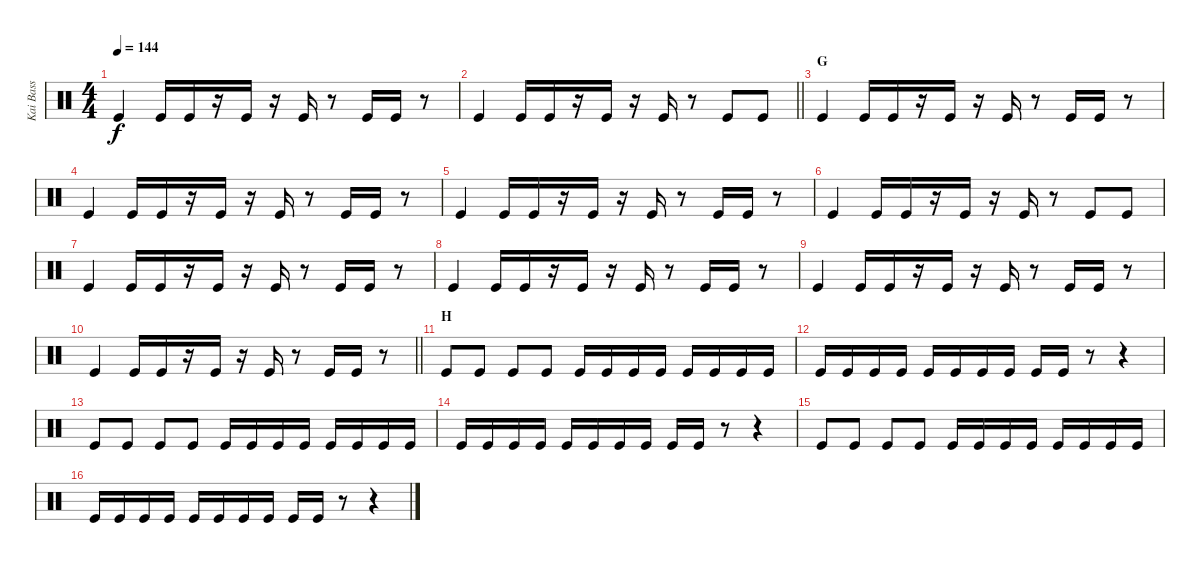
\track ("Kai Bass" "Kai Bass") {instrument percussion}
\staff {score}
\articulation defaults
\ts (4 4)
\tempo 144
\clef neutral
\ks c "Kick (hit)".4{dy f} "Kick (hit)".16 "Kick (hit)".16
r.16 "Kick (hit)".16 r.16 "Kick (hit)".16 r.8 "Kick (hit)".16 "Kick (hit)".16 r.8 |
\barLineRight lightlight "Kick (hit)".4 "Kick (hit)".16 "Kick (hit)".16
r.16 "Kick (hit)".16 r.16 "Kick (hit)".16 r.8 "Kick (hit)".8 "Kick (hit)".8 |
\section ("" "G")
"Kick (hit)".4 "Kick (hit)".16 "Kick (hit)".16 r.16 "Kick (hit)".16 r.16 "Kick (hit)".16 r.8 "Kick (hit)".16 "Kick (hit)".16 r.8 |
"Kick (hit)".4 "Kick (hit)".16 "Kick (hit)".16 r.16 "Kick (hit)".16 r.16 "Kick (hit)".16 r.8 "Kick (hit)".16 "Kick (hit)".16 r.8 |
"Kick (hit)".4 "Kick (hit)".16 "Kick (hit)".16 r.16 "Kick (hit)".16 r.16 "Kick (hit)".16 r.8 "Kick (hit)".16 "Kick (hit)".16 r.8 |
"Kick (hit)".4 "Kick (hit)".16 "Kick (hit)".16 r.16 "Kick (hit)".16 r.16 "Kick (hit)".16 r.8 "Kick (hit)".8 "Kick (hit)".8 |
"Kick (hit)".4 "Kick (hit)".16 "Kick (hit)".16 r.16 "Kick (hit)".16 r.16 "Kick (hit)".16 r.8 "Kick (hit)".16 "Kick (hit)".16 r.8 |
"Kick (hit)".4 "Kick (hit)".16 "Kick (hit)".16 r.16 "Kick (hit)".16 r.16 "Kick (hit)".16 r.8 "Kick (hit)".16 "Kick (hit)".16 r.8 |
"Kick (hit)".4 "Kick (hit)".16 "Kick (hit)".16 r.16 "Kick (hit)".16 r.16 "Kick (hit)".16 r.8 "Kick (hit)".16 "Kick (hit)".16 r.8 |
\barLineRight lightlight "Kick (hit)".4 "Kick (hit)".16 "Kick (hit)".16
r.16 "Kick (hit)".16 r.16 "Kick (hit)".16 r.8 "Kick (hit)".16 "Kick (hit)".16 r.8 |
\section ("" "H")
"Kick (hit)".8 "Kick (hit)".8 "Kick (hit)".8 "Kick (hit)".8 "Kick (hit)".16 "Kick (hit)".16 "Kick (hit)".16 "Kick (hit)".16 "Kick (hit)".16 "Kick (hit)".16 "Kick (hit)".16 "Kick (hit)".16 |
"Kick (hit)".16 "Kick (hit)".16 "Kick (hit)".16 "Kick (hit)".16 "Kick (hit)".16 "Kick (hit)".16 "Kick (hit)".16 "Kick (hit)".16 "Kick (hit)".16 "Kick (hit)".16 r.8 r.4 |
"Kick (hit)".8 "Kick (hit)".8 "Kick (hit)".8 "Kick (hit)".8 "Kick (hit)".16 "Kick (hit)".16 "Kick (hit)".16 "Kick (hit)".16 "Kick (hit)".16 "Kick (hit)".16 "Kick (hit)".16 "Kick (hit)".16 |
"Kick (hit)".16 "Kick (hit)".16 "Kick (hit)".16 "Kick (hit)".16 "Kick (hit)".16 "Kick (hit)".16 "Kick (hit)".16 "Kick (hit)".16 "Kick (hit)".16 "Kick (hit)".16 r.8 r.4 |
"Kick (hit)".8 "Kick (hit)".8 "Kick (hit)".8 "Kick (hit)".8 "Kick (hit)".16 "Kick (hit)".16 "Kick (hit)".16 "Kick (hit)".16 "Kick (hit)".16 "Kick (hit)".16 "Kick (hit)".16 "Kick (hit)".16 |
"Kick (hit)".16 "Kick (hit)".16 "Kick (hit)".16 "Kick (hit)".16 "Kick (hit)".16 "Kick (hit)".16 "Kick (hit)".16 "Kick (hit)".16 "Kick (hit)".16 "Kick (hit)".16 r.8 r.4
